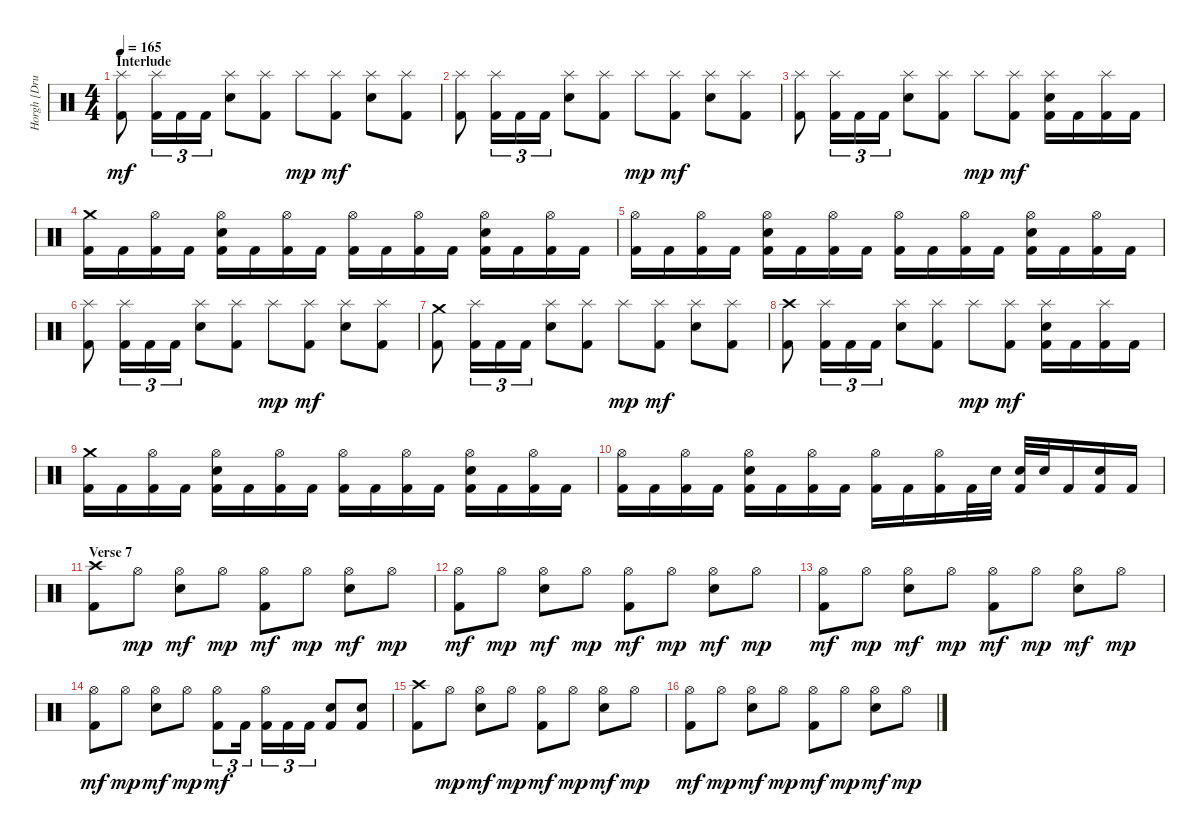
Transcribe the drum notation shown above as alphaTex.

\track ("Horgh [Drums]" "Horgh [Dru") {instrument percussion}
\staff {score}
\articulation defaults
\ts (4 4)
\section ("" "Interlude")
\tempo 165
\clef neutral
\ks c
("Splash (hit)" "Kick (hit) 2").8{dy mf} ("Splash (hit)" "Kick (hit) 2").16{tu (3 2)} "Kick (hit) 2".16{tu (3 2)} "Kick (hit) 2".16{tu (3 2)} ("Splash (hit)" "Electric Snare (hit)").8 ("Splash (hit)" "Kick (hit) 2").8 "Splash (hit)".8{dy mp} ("Splash (hit)" "Kick (hit) 2").8{dy mf} ("Splash (hit)" "Electric Snare (hit)").8 ("Splash (hit)" "Kick (hit) 2").8 |
("Splash (hit)" "Kick (hit) 2").8 ("Splash (hit)" "Kick (hit) 2").16{tu (3 2)} "Kick (hit) 2".16{tu (3 2)} "Kick (hit) 2".16{tu (3 2)} ("Splash (hit)" "Electric Snare (hit)").8 ("Splash (hit)" "Kick (hit) 2").8 "Splash (hit)".8{dy mp} ("Splash (hit)" "Kick (hit) 2").8{dy mf} ("Splash (hit)" "Electric Snare (hit)").8 ("Splash (hit)" "Kick (hit) 2").8 |
("Splash (hit)" "Kick (hit) 2").8 ("Splash (hit)" "Kick (hit) 2").16{tu (3 2)} "Kick (hit) 2".16{tu (3 2)} "Kick (hit) 2".16{tu (3 2)} ("Splash (hit)" "Electric Snare (hit)").8 ("Splash (hit)" "Kick (hit) 2").8 "Splash (hit)".8{dy mp} ("Splash (hit)" "Kick (hit) 2").8{dy mf} ("Splash (hit)" "Electric Snare (hit)" "Kick (hit) 2").16 "Kick (hit) 2".16 ("Splash (hit)" "Kick (hit) 2").16 "Kick (hit) 2".16 |
("Crash medium (hit)" "Kick (hit) 2").16 "Kick (hit) 2".16 ("Hi-Hat (open)" "Kick (hit) 2").16 "Kick (hit) 2".16 ("Hi-Hat (open)" "Electric Snare (hit)" "Kick (hit) 2").16 "Kick (hit) 2".16 ("Hi-Hat (open)" "Kick (hit) 2").16 "Kick (hit) 2".16 ("Hi-Hat (open)" "Kick (hit) 2").16 "Kick (hit) 2".16 ("Hi-Hat (open)" "Kick (hit) 2").16 "Kick (hit) 2".16 ("Hi-Hat (open)" "Electric Snare (hit)" "Kick (hit) 2").16 "Kick (hit) 2".16 ("Hi-Hat (open)" "Kick (hit) 2").16 "Kick (hit) 2".16 |
("Hi-Hat (open)" "Kick (hit) 2").16 "Kick (hit) 2".16 ("Hi-Hat (open)" "Kick (hit) 2").16 "Kick (hit) 2".16 ("Hi-Hat (open)" "Electric Snare (hit)" "Kick (hit) 2").16 "Kick (hit) 2".16 ("Hi-Hat (open)" "Kick (hit) 2").16 "Kick (hit) 2".16 ("Hi-Hat (open)" "Kick (hit) 2").16 "Kick (hit) 2".16 ("Hi-Hat (open)" "Kick (hit) 2").16 "Kick (hit) 2".16 ("Hi-Hat (open)" "Electric Snare (hit)" "Kick (hit) 2").16 "Kick (hit) 2".16 ("Hi-Hat (open)" "Kick (hit) 2").16 "Kick (hit) 2".16 |
("Splash (hit)" "Kick (hit) 2").8 ("Splash (hit)" "Kick (hit) 2").16{tu (3 2)} "Kick (hit) 2".16{tu (3 2)} "Kick (hit) 2".16{tu (3 2)} ("Splash (hit)" "Electric Snare (hit)").8 ("Splash (hit)" "Kick (hit) 2").8 "Splash (hit)".8{dy mp} ("Splash (hit)" "Kick (hit) 2").8{dy mf} ("Splash (hit)" "Electric Snare (hit)").8 ("Splash (hit)" "Kick (hit) 2").8 |
("Crash medium (hit)" "Kick (hit) 2").8 ("Splash (hit)" "Kick (hit) 2").16{tu (3 2)} "Kick (hit) 2".16{tu (3 2)} "Kick (hit) 2".16{tu (3 2)} ("Splash (hit)" "Electric Snare (hit)").8 ("Splash (hit)" "Kick (hit) 2").8 "Splash (hit)".8{dy mp} ("Splash (hit)" "Kick (hit) 2").8{dy mf} ("Splash (hit)" "Electric Snare (hit)").8 ("Splash (hit)" "Kick (hit) 2").8 |
("Crash high (hit)" "Kick (hit) 2").8 ("Splash (hit)" "Kick (hit) 2").16{tu (3 2)} "Kick (hit) 2".16{tu (3 2)} "Kick (hit) 2".16{tu (3 2)} ("Splash (hit)" "Electric Snare (hit)").8 ("Splash (hit)" "Kick (hit) 2").8 "Splash (hit)".8{dy mp} ("Splash (hit)" "Kick (hit) 2").8{dy mf} ("Splash (hit)" "Electric Snare (hit)" "Kick (hit) 2").16 "Kick (hit) 2".16 ("Splash (hit)" "Kick (hit) 2").16 "Kick (hit) 2".16 |
("Crash medium (hit)" "Kick (hit) 2").16 "Kick (hit) 2".16 ("Hi-Hat (open)" "Kick (hit) 2").16 "Kick (hit) 2".16 ("Hi-Hat (open)" "Electric Snare (hit)" "Kick (hit) 2").16 "Kick (hit) 2".16 ("Hi-Hat (open)" "Kick (hit) 2").16 "Kick (hit) 2".16 ("Hi-Hat (open)" "Kick (hit) 2").16 "Kick (hit) 2".16 ("Hi-Hat (open)" "Kick (hit) 2").16 "Kick (hit) 2".16 ("Hi-Hat (open)" "Electric Snare (hit)" "Kick (hit) 2").16 "Kick (hit) 2".16 ("Hi-Hat (open)" "Kick (hit) 2").16 "Kick (hit) 2".16 |
("Hi-Hat (open)" "Kick (hit) 2").16 "Kick (hit) 2".16 ("Hi-Hat (open)" "Kick (hit) 2").16 "Kick (hit) 2".16 ("Hi-Hat (open)" "Electric Snare (hit)" "Kick (hit) 2").16 "Kick (hit) 2".16 ("Hi-Hat (open)" "Kick (hit) 2").16 "Kick (hit) 2".16 ("Hi-Hat (open)" "Kick (hit) 2").16 "Kick (hit) 2".16 ("Hi-Hat (open)" "Kick (hit) 2").16 "Kick (hit) 2".32 "Electric Snare (hit)".32 ("Electric Snare (hit)" "Kick (hit) 2").32 "Electric Snare (hit)".32 "Kick (hit) 2".16 ("Electric Snare (hit)" "Kick (hit) 2").16 "Kick (hit) 2".16 |
\section ("" "Verse 7")
("Crash high (hit)" "Kick (hit) 2").8 "Hi-Hat (open)".8{dy mp} ("Hi-Hat (open)" "Electric Snare (hit)").8{dy mf} "Hi-Hat (open)".8{dy mp} ("Hi-Hat (open)" "Kick (hit) 2").8{dy mf} "Hi-Hat (open)".8{dy mp} ("Hi-Hat (open)" "Electric Snare (hit)").8{dy mf} "Hi-Hat (open)".8{dy mp} |
("Hi-Hat (open)" "Kick (hit) 2").8{dy mf} "Hi-Hat (open)".8{dy mp} ("Hi-Hat (open)" "Electric Snare (hit)").8{dy mf} "Hi-Hat (open)".8{dy mp} ("Hi-Hat (open)" "Kick (hit) 2").8{dy mf} "Hi-Hat (open)".8{dy mp} ("Hi-Hat (open)" "Electric Snare (hit)").8{dy mf} "Hi-Hat (open)".8{dy mp} |
("Hi-Hat (open)" "Kick (hit) 2").8{dy mf} "Hi-Hat (open)".8{dy mp} ("Hi-Hat (open)" "Electric Snare (hit)").8{dy mf} "Hi-Hat (open)".8{dy mp} ("Hi-Hat (open)" "Kick (hit) 2").8{dy mf} "Hi-Hat (open)".8{dy mp} ("Hi-Hat (open)" "Electric Snare (hit)").8{dy mf} "Hi-Hat (open)".8{dy mp} |
("Hi-Hat (open)" "Kick (hit) 2").8{dy mf} "Hi-Hat (open)".8{dy mp} ("Hi-Hat (open)" "Electric Snare (hit)").8{dy mf} "Hi-Hat (open)".8{dy mp} ("Hi-Hat (open)" "Kick (hit) 2").8{tu (3 2) dy mf} "Kick (hit) 2".16{tu (3 2)} ("Hi-Hat (open)" "Kick (hit) 2").16{tu (3 2)} "Kick (hit) 2".16{tu (3 2)} "Kick (hit) 2".16{tu (3 2)} ("Electric Snare (hit)" "Kick (hit) 2").8 ("Electric Snare (hit)" "Kick (hit) 2").8 |
("Crash high (hit)" "Kick (hit) 2").8 "Hi-Hat (open)".8{dy mp} ("Hi-Hat (open)" "Electric Snare (hit)").8{dy mf} "Hi-Hat (open)".8{dy mp} ("Hi-Hat (open)" "Kick (hit) 2").8{dy mf} "Hi-Hat (open)".8{dy mp} ("Hi-Hat (open)" "Electric Snare (hit)").8{dy mf} "Hi-Hat (open)".8{dy mp} |
("Hi-Hat (open)" "Kick (hit) 2").8{dy mf} "Hi-Hat (open)".8{dy mp} ("Hi-Hat (open)" "Electric Snare (hit)").8{dy mf} "Hi-Hat (open)".8{dy mp} ("Hi-Hat (open)" "Kick (hit) 2").8{dy mf} "Hi-Hat (open)".8{dy mp} ("Hi-Hat (open)" "Electric Snare (hit)").8{dy mf} "Hi-Hat (open)".8{dy mp}
